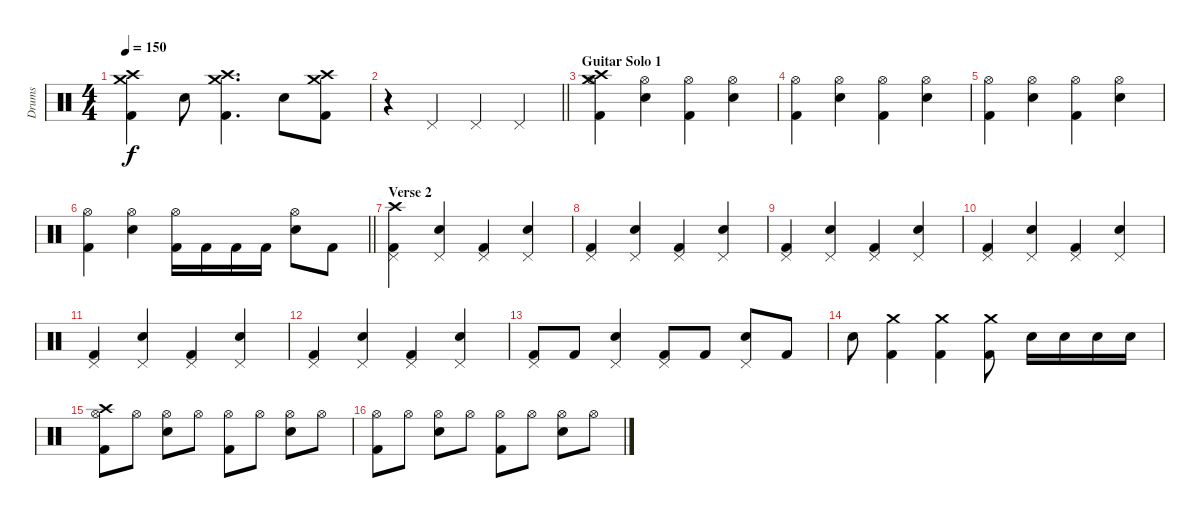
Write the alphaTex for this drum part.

\track ("Drums" "Drums") {instrument percussion}
\staff {score}
\articulation defaults
\ts (4 4)
\tempo 150
\clef neutral
\ks c
("Crash medium (hit)" "Crash high (hit)" "Kick (hit) 2").4{dy f} "Electric Snare (hit)".8 ("Crash medium (hit)" "Crash high (hit)" "Kick (hit) 2").4{d} "Electric Snare (hit)".8 ("Crash medium (hit)" "Crash high (hit)" "Kick (hit) 2").8 |
\barLineRight lightlight
r.4 "Pedal Hi-Hat (hit)".4 "Pedal Hi-Hat (hit)".4 "Pedal Hi-Hat (hit)".4 |
\section ("" "Guitar Solo 1")
("Hi-Hat (open)" "Crash medium (hit)" "Crash high (hit)" "Kick (hit) 2").4 ("Hi-Hat (open)" "Electric Snare (hit)").4 ("Hi-Hat (open)" "Kick (hit) 2").4 ("Hi-Hat (open)" "Electric Snare (hit)").4 |
("Hi-Hat (open)" "Kick (hit) 2").4 ("Hi-Hat (open)" "Electric Snare (hit)").4 ("Hi-Hat (open)" "Kick (hit) 2").4 ("Hi-Hat (open)" "Electric Snare (hit)").4 |
("Hi-Hat (open)" "Kick (hit) 2").4 ("Hi-Hat (open)" "Electric Snare (hit)").4 ("Hi-Hat (open)" "Kick (hit) 2").4 ("Hi-Hat (open)" "Electric Snare (hit)").4 |
\barLineRight lightlight
("Hi-Hat (open)" "Kick (hit) 2").4 ("Hi-Hat (open)" "Electric Snare (hit)").4 ("Hi-Hat (open)" "Kick (hit) 2").16 "Kick (hit) 2".16 "Kick (hit) 2".16 "Kick (hit) 2".16 ("Hi-Hat (open)" "Electric Snare (hit)").8 "Kick (hit) 2".8 |
\section ("" "Verse 2")
("Pedal Hi-Hat (hit)" "Crash high (hit)" "Kick (hit) 2").4 ("Pedal Hi-Hat (hit)" "Electric Snare (hit)").4 ("Pedal Hi-Hat (hit)" "Kick (hit) 2").4 ("Pedal Hi-Hat (hit)" "Electric Snare (hit)").4 |
("Pedal Hi-Hat (hit)" "Kick (hit) 2").4 ("Pedal Hi-Hat (hit)" "Electric Snare (hit)").4 ("Pedal Hi-Hat (hit)" "Kick (hit) 2").4 ("Pedal Hi-Hat (hit)" "Electric Snare (hit)").4 |
("Pedal Hi-Hat (hit)" "Kick (hit) 2").4 ("Pedal Hi-Hat (hit)" "Electric Snare (hit)").4 ("Pedal Hi-Hat (hit)" "Kick (hit) 2").4 ("Pedal Hi-Hat (hit)" "Electric Snare (hit)").4 |
("Pedal Hi-Hat (hit)" "Kick (hit) 2").4 ("Pedal Hi-Hat (hit)" "Electric Snare (hit)").4 ("Pedal Hi-Hat (hit)" "Kick (hit) 2").4 ("Pedal Hi-Hat (hit)" "Electric Snare (hit)").4 |
("Pedal Hi-Hat (hit)" "Kick (hit) 2").4 ("Pedal Hi-Hat (hit)" "Electric Snare (hit)").4 ("Pedal Hi-Hat (hit)" "Kick (hit) 2").4 ("Pedal Hi-Hat (hit)" "Electric Snare (hit)").4 |
("Pedal Hi-Hat (hit)" "Kick (hit) 2").4 ("Pedal Hi-Hat (hit)" "Electric Snare (hit)").4 ("Pedal Hi-Hat (hit)" "Kick (hit) 2").4 ("Pedal Hi-Hat (hit)" "Electric Snare (hit)").4 |
("Pedal Hi-Hat (hit)" "Kick (hit) 2").8 "Kick (hit) 2".8 ("Pedal Hi-Hat (hit)" "Electric Snare (hit)").4 ("Pedal Hi-Hat (hit)" "Kick (hit) 2").8 "Kick (hit) 2".8 ("Pedal Hi-Hat (hit)" "Electric Snare (hit)").8 "Kick (hit) 2".8 |
"Electric Snare (hit)".8 ("Crash medium (hit)" "Kick (hit) 2").4 ("Crash medium (hit)" "Kick (hit) 2").4 ("Crash medium (hit)" "Kick (hit) 2").8 "Electric Snare (hit)".16 "Electric Snare (hit)".16 "Electric Snare (hit)".16 "Electric Snare (hit)".16 |
("Hi-Hat (open)" "Crash high (hit)" "Kick (hit) 2").8 "Hi-Hat (open)".8 ("Hi-Hat (open)" "Electric Snare (hit)").8 "Hi-Hat (open)".8 ("Hi-Hat (open)" "Kick (hit) 2").8 "Hi-Hat (open)".8 ("Hi-Hat (open)" "Electric Snare (hit)").8 "Hi-Hat (open)".8 |
("Hi-Hat (open)" "Kick (hit) 2").8 "Hi-Hat (open)".8 ("Hi-Hat (open)" "Electric Snare (hit)").8 "Hi-Hat (open)".8 ("Hi-Hat (open)" "Kick (hit) 2").8 "Hi-Hat (open)".8 ("Hi-Hat (open)" "Electric Snare (hit)").8 "Hi-Hat (open)".8
